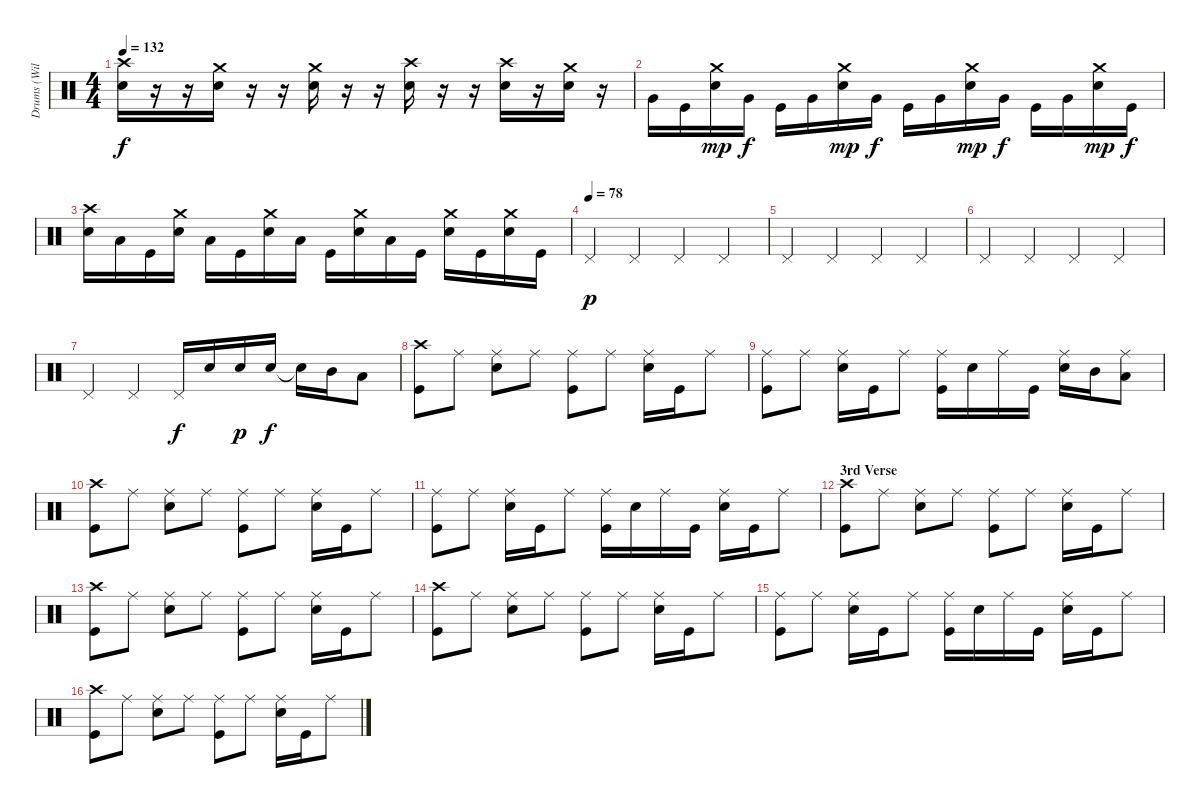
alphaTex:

\track ("Drums (William Ward)" "Drums (Wil") {instrument percussion}
\staff {score}
\articulation defaults
\ts (4 4)
\tempo 132
\clef neutral
\ks c
("Crash high (hit)" "Electric Snare (hit)").16{dy f} r.16 r.16 ("Crash medium (hit)" "Electric Snare (hit)").16 r.16 r.16 ("Crash medium (hit)" "Electric Snare (hit)").16 r.16 r.16 ("Crash high (hit)" "Electric Snare (hit)").16 r.16 r.16 ("Crash high (hit)" "Electric Snare (hit)").16 r.16 ("Crash medium (hit)" "Electric Snare (hit)").16 r.16 |
"Very Low Tom (hit)".16 "Kick (hit)".16 ("Crash medium (hit)" "Electric Snare (hit)").16{dy mp} "Very Low Tom (hit)".16{dy f} "Kick (hit)".16 "Very Low Tom (hit)".16 ("Crash medium (hit)" "Electric Snare (hit)").16{dy mp} "Very Low Tom (hit)".16{dy f} "Kick (hit)".16 "Very Low Tom (hit)".16 ("Crash medium (hit)" "Electric Snare (hit)").16{dy mp} "Very Low Tom (hit)".16{dy f} "Kick (hit)".16 "Very Low Tom (hit)".16 ("Crash medium (hit)" "Electric Snare (hit)").16{dy mp} "Kick (hit)".16{dy f} |
("Crash high (hit)" "Electric Snare (hit)").16 "Low Floor Tom (hit)".16 "Kick (hit)".16 ("Crash medium (hit)" "Electric Snare (hit)").16 "Low Floor Tom (hit)".16 "Kick (hit)".16 ("Crash medium (hit)" "Electric Snare (hit)").16 "Low Floor Tom (hit)".16 "Kick (hit)".16 ("Crash medium (hit)" "Electric Snare (hit)").16 "Low Floor Tom (hit)".16 "Kick (hit)".16 ("Crash medium (hit)" "Electric Snare (hit)").16 "Kick (hit)".16 ("Crash medium (hit)" "Electric Snare (hit)").16 "Kick (hit)".16 |
\tempo (78)
"Pedal Hi-Hat (hit)".4{dy p} "Pedal Hi-Hat (hit)".4 "Pedal Hi-Hat (hit)".4 "Pedal Hi-Hat (hit)".4 |
"Pedal Hi-Hat (hit)".4 "Pedal Hi-Hat (hit)".4 "Pedal Hi-Hat (hit)".4 "Pedal Hi-Hat (hit)".4 |
"Pedal Hi-Hat (hit)".4 "Pedal Hi-Hat (hit)".4 "Pedal Hi-Hat (hit)".4 "Pedal Hi-Hat (hit)".4 |
"Pedal Hi-Hat (hit)".4 "Pedal Hi-Hat (hit)".4 "Pedal Hi-Hat (hit)".16{dy f} "Electric Snare (hit)".16 "Electric Snare (hit)".16{dy p} "Electric Snare (hit)".16{dy f} "Electric Snare (hit)"{t}.16 "Mid Tom (hit)".16 "Low Tom (hit)".8 |
("Crash high (hit)" "Kick (hit)").8 "Ride (middle)".8 ("Ride (middle)" "Electric Snare (hit)").8 "Ride (middle)".8 ("Ride (middle)" "Kick (hit)").8 "Ride (middle)".8 ("Ride (middle)" "Electric Snare (hit)").16 "Kick (hit)".16 "Ride (middle)".8 |
("Ride (middle)" "Kick (hit)").8 "Ride (middle)".8 ("Ride (middle)" "Electric Snare (hit)").16 "Kick (hit)".16 "Ride (middle)".8 ("Ride (middle)" "Kick (hit)").16 "Electric Snare (hit)".16 "Ride (middle)".16 "Kick (hit)".16 ("Ride (middle)" "Electric Snare (hit)").16 "Mid Tom (hit)".16 ("Ride (middle)" "Low Tom (hit)").8 |
("Crash high (hit)" "Kick (hit)").8 "Ride (middle)".8 ("Ride (middle)" "Electric Snare (hit)").8 "Ride (middle)".8 ("Ride (middle)" "Kick (hit)").8 "Ride (middle)".8 ("Ride (middle)" "Electric Snare (hit)").16 "Kick (hit)".16 "Ride (middle)".8 |
("Ride (middle)" "Kick (hit)").8 "Ride (middle)".8 ("Ride (middle)" "Electric Snare (hit)").16 "Kick (hit)".16 "Ride (middle)".8 ("Ride (middle)" "Kick (hit)").16 "Electric Snare (hit)".16 "Ride (middle)".16 "Kick (hit)".16 ("Ride (middle)" "Electric Snare (hit)").16 "Kick (hit)".16 "Ride (middle)".8 |
\section ("" "3rd Verse")
("Crash high (hit)" "Kick (hit)").8 "Ride (middle)".8 ("Ride (middle)" "Electric Snare (hit)").8 "Ride (middle)".8 ("Ride (middle)" "Kick (hit)").8 "Ride (middle)".8 ("Ride (middle)" "Electric Snare (hit)").16 "Kick (hit)".16 "Ride (middle)".8 |
("Crash high (hit)" "Kick (hit)").8 "Ride (middle)".8 ("Ride (middle)" "Electric Snare (hit)").8 "Ride (middle)".8 ("Ride (middle)" "Kick (hit)").8 "Ride (middle)".8 ("Ride (middle)" "Electric Snare (hit)").16 "Kick (hit)".16 "Ride (middle)".8 |
("Crash high (hit)" "Kick (hit)").8 "Ride (middle)".8 ("Ride (middle)" "Electric Snare (hit)").8 "Ride (middle)".8 ("Ride (middle)" "Kick (hit)").8 "Ride (middle)".8 ("Ride (middle)" "Electric Snare (hit)").16 "Kick (hit)".16 "Ride (middle)".8 |
("Ride (middle)" "Kick (hit)").8 "Ride (middle)".8 ("Ride (middle)" "Electric Snare (hit)").16 "Kick (hit)".16 "Ride (middle)".8 ("Ride (middle)" "Kick (hit)").16 "Electric Snare (hit)".16 "Ride (middle)".16 "Kick (hit)".16 ("Ride (middle)" "Electric Snare (hit)").16 "Kick (hit)".16 "Ride (middle)".8 |
("Crash high (hit)" "Kick (hit)").8 "Ride (middle)".8 ("Ride (middle)" "Electric Snare (hit)").8 "Ride (middle)".8 ("Ride (middle)" "Kick (hit)").8 "Ride (middle)".8 ("Ride (middle)" "Electric Snare (hit)").16 "Kick (hit)".16 "Ride (middle)".8
